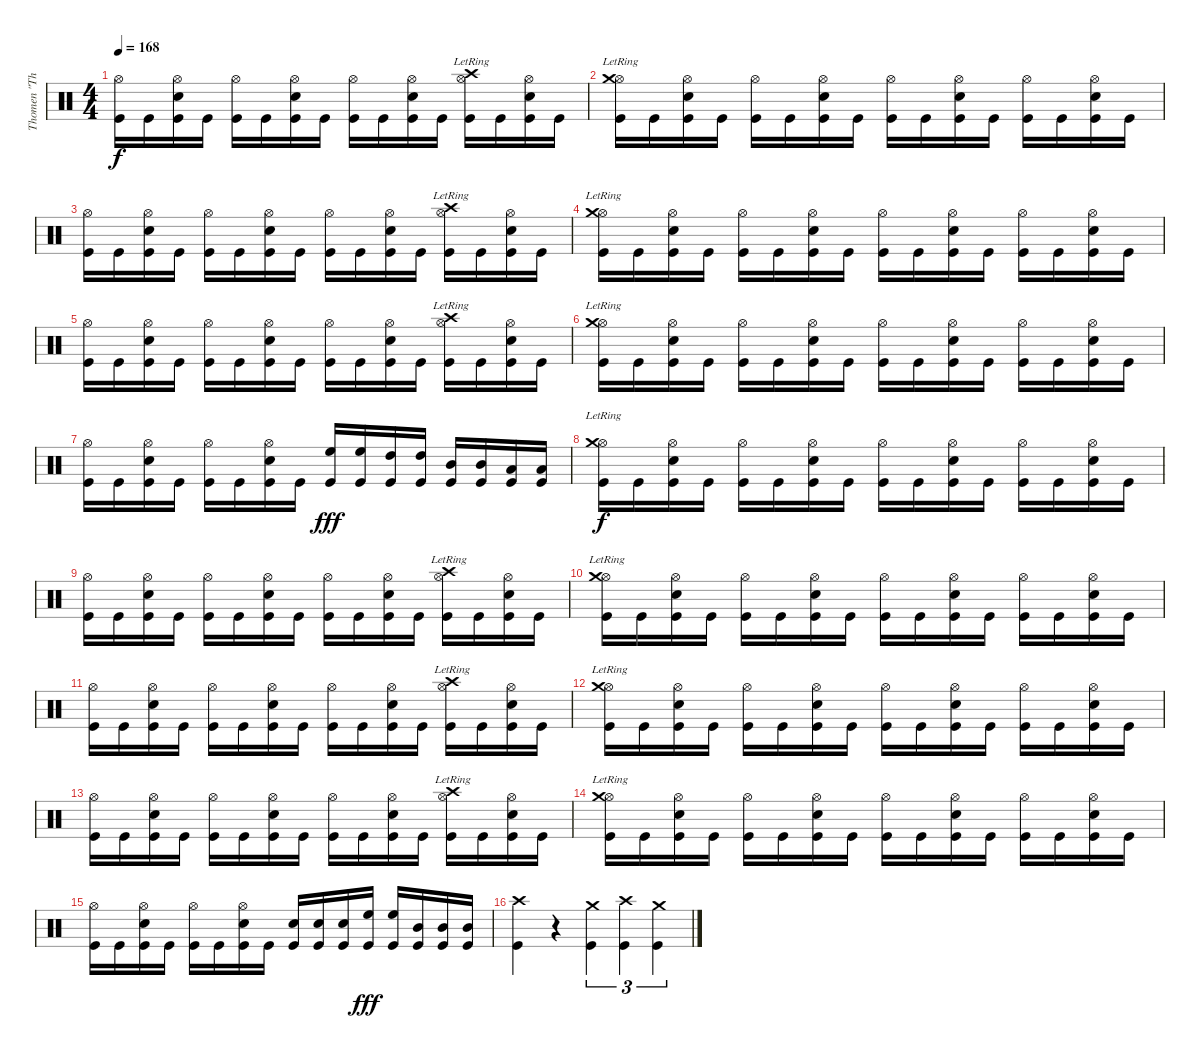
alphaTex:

\track ("Thomen \"The Omen\" Stauch" "Thomen \"Th") {instrument percussion}
\staff {score}
\articulation defaults
\ts (4 4)
\tempo 168
\clef neutral
\ks c
("Hi-Hat (open)" "Kick (hit)").16{dy f} "Kick (hit)".16 ("Hi-Hat (open)" "Snare (hit) 2" "Kick (hit)").16 "Kick (hit)".16 ("Hi-Hat (open)" "Kick (hit)").16 "Kick (hit)".16 ("Hi-Hat (open)" "Snare (hit) 2" "Kick (hit)").16 "Kick (hit)".16 ("Hi-Hat (open)" "Kick (hit)").16 "Kick (hit)".16 ("Hi-Hat (open)" "Snare (hit) 2" "Kick (hit)").16 "Kick (hit)".16 ("Hi-Hat (open)" "Crash high (hit)"{lr} "Kick (hit)").16 "Kick (hit)".16 ("Hi-Hat (open)" "Snare (hit) 2" "Kick (hit)").16 "Kick (hit)".16 |
("Hi-Hat (open)" "Crash medium (hit)"{lr} "Kick (hit)").16 "Kick (hit)".16 ("Hi-Hat (open)" "Snare (hit) 2" "Kick (hit)").16 "Kick (hit)".16 ("Hi-Hat (open)" "Kick (hit)").16 "Kick (hit)".16 ("Hi-Hat (open)" "Snare (hit) 2" "Kick (hit)").16 "Kick (hit)".16 ("Hi-Hat (open)" "Kick (hit)").16 "Kick (hit)".16 ("Hi-Hat (open)" "Snare (hit) 2" "Kick (hit)").16 "Kick (hit)".16 ("Hi-Hat (open)" "Kick (hit)").16 "Kick (hit)".16 ("Hi-Hat (open)" "Snare (hit) 2" "Kick (hit)").16 "Kick (hit)".16 |
("Hi-Hat (open)" "Kick (hit)").16 "Kick (hit)".16 ("Hi-Hat (open)" "Snare (hit) 2" "Kick (hit)").16 "Kick (hit)".16 ("Hi-Hat (open)" "Kick (hit)").16 "Kick (hit)".16 ("Hi-Hat (open)" "Snare (hit) 2" "Kick (hit)").16 "Kick (hit)".16 ("Hi-Hat (open)" "Kick (hit)").16 "Kick (hit)".16 ("Hi-Hat (open)" "Snare (hit) 2" "Kick (hit)").16 "Kick (hit)".16 ("Hi-Hat (open)" "Crash high (hit)"{lr} "Kick (hit)").16 "Kick (hit)".16 ("Hi-Hat (open)" "Snare (hit) 2" "Kick (hit)").16 "Kick (hit)".16 |
("Hi-Hat (open)" "Crash medium (hit)"{lr} "Kick (hit)").16 "Kick (hit)".16 ("Hi-Hat (open)" "Snare (hit) 2" "Kick (hit)").16 "Kick (hit)".16 ("Hi-Hat (open)" "Kick (hit)").16 "Kick (hit)".16 ("Hi-Hat (open)" "Snare (hit) 2" "Kick (hit)").16 "Kick (hit)".16 ("Hi-Hat (open)" "Kick (hit)").16 "Kick (hit)".16 ("Hi-Hat (open)" "Snare (hit) 2" "Kick (hit)").16 "Kick (hit)".16 ("Hi-Hat (open)" "Kick (hit)").16 "Kick (hit)".16 ("Hi-Hat (open)" "Snare (hit) 2" "Kick (hit)").16 "Kick (hit)".16 |
("Hi-Hat (open)" "Kick (hit)").16 "Kick (hit)".16 ("Hi-Hat (open)" "Snare (hit) 2" "Kick (hit)").16 "Kick (hit)".16 ("Hi-Hat (open)" "Kick (hit)").16 "Kick (hit)".16 ("Hi-Hat (open)" "Snare (hit) 2" "Kick (hit)").16 "Kick (hit)".16 ("Hi-Hat (open)" "Kick (hit)").16 "Kick (hit)".16 ("Hi-Hat (open)" "Snare (hit) 2" "Kick (hit)").16 "Kick (hit)".16 ("Hi-Hat (open)" "Crash high (hit)"{lr} "Kick (hit)").16 "Kick (hit)".16 ("Hi-Hat (open)" "Snare (hit) 2" "Kick (hit)").16 "Kick (hit)".16 |
("Hi-Hat (open)" "Crash medium (hit)"{lr} "Kick (hit)").16 "Kick (hit)".16 ("Hi-Hat (open)" "Snare (hit) 2" "Kick (hit)").16 "Kick (hit)".16 ("Hi-Hat (open)" "Kick (hit)").16 "Kick (hit)".16 ("Hi-Hat (open)" "Snare (hit) 2" "Kick (hit)").16 "Kick (hit)".16 ("Hi-Hat (open)" "Kick (hit)").16 "Kick (hit)".16 ("Hi-Hat (open)" "Snare (hit) 2" "Kick (hit)").16 "Kick (hit)".16 ("Hi-Hat (open)" "Kick (hit)").16 "Kick (hit)".16 ("Hi-Hat (open)" "Snare (hit) 2" "Kick (hit)").16 "Kick (hit)".16 |
("Hi-Hat (open)" "Kick (hit)").16 "Kick (hit)".16 ("Hi-Hat (open)" "Snare (hit) 2" "Kick (hit)").16 "Kick (hit)".16 ("Hi-Hat (open)" "Kick (hit)").16 "Kick (hit)".16 ("Hi-Hat (open)" "Snare (hit) 2" "Kick (hit)").16 "Kick (hit)".16 ("High Floor Tom (hit)" "Kick (hit)").16{dy fff} ("High Floor Tom (hit)" "Kick (hit)").16 ("High Tom (hit)" "Kick (hit)").16 ("High Tom (hit)" "Kick (hit)").16 ("Mid Tom (hit)" "Kick (hit)").16 ("Mid Tom (hit)" "Kick (hit)").16 ("Low Tom (hit)" "Kick (hit)").16 ("Low Tom (hit)" "Kick (hit)").16 |
("Hi-Hat (open)" "Crash medium (hit)"{lr} "Kick (hit)").16{dy f} "Kick (hit)".16 ("Hi-Hat (open)" "Snare (hit) 2" "Kick (hit)").16 "Kick (hit)".16 ("Hi-Hat (open)" "Kick (hit)").16 "Kick (hit)".16 ("Hi-Hat (open)" "Snare (hit) 2" "Kick (hit)").16 "Kick (hit)".16 ("Hi-Hat (open)" "Kick (hit)").16 "Kick (hit)".16 ("Hi-Hat (open)" "Snare (hit) 2" "Kick (hit)").16 "Kick (hit)".16 ("Hi-Hat (open)" "Kick (hit)").16 "Kick (hit)".16 ("Hi-Hat (open)" "Snare (hit) 2" "Kick (hit)").16 "Kick (hit)".16 |
("Hi-Hat (open)" "Kick (hit)").16 "Kick (hit)".16 ("Hi-Hat (open)" "Snare (hit) 2" "Kick (hit)").16 "Kick (hit)".16 ("Hi-Hat (open)" "Kick (hit)").16 "Kick (hit)".16 ("Hi-Hat (open)" "Snare (hit) 2" "Kick (hit)").16 "Kick (hit)".16 ("Hi-Hat (open)" "Kick (hit)").16 "Kick (hit)".16 ("Hi-Hat (open)" "Snare (hit) 2" "Kick (hit)").16 "Kick (hit)".16 ("Hi-Hat (open)" "Crash high (hit)"{lr} "Kick (hit)").16 "Kick (hit)".16 ("Hi-Hat (open)" "Snare (hit) 2" "Kick (hit)").16 "Kick (hit)".16 |
("Hi-Hat (open)" "Crash medium (hit)"{lr} "Kick (hit)").16 "Kick (hit)".16 ("Hi-Hat (open)" "Snare (hit) 2" "Kick (hit)").16 "Kick (hit)".16 ("Hi-Hat (open)" "Kick (hit)").16 "Kick (hit)".16 ("Hi-Hat (open)" "Snare (hit) 2" "Kick (hit)").16 "Kick (hit)".16 ("Hi-Hat (open)" "Kick (hit)").16 "Kick (hit)".16 ("Hi-Hat (open)" "Snare (hit) 2" "Kick (hit)").16 "Kick (hit)".16 ("Hi-Hat (open)" "Kick (hit)").16 "Kick (hit)".16 ("Hi-Hat (open)" "Snare (hit) 2" "Kick (hit)").16 "Kick (hit)".16 |
("Hi-Hat (open)" "Kick (hit)").16 "Kick (hit)".16 ("Hi-Hat (open)" "Snare (hit) 2" "Kick (hit)").16 "Kick (hit)".16 ("Hi-Hat (open)" "Kick (hit)").16 "Kick (hit)".16 ("Hi-Hat (open)" "Snare (hit) 2" "Kick (hit)").16 "Kick (hit)".16 ("Hi-Hat (open)" "Kick (hit)").16 "Kick (hit)".16 ("Hi-Hat (open)" "Snare (hit) 2" "Kick (hit)").16 "Kick (hit)".16 ("Hi-Hat (open)" "Crash high (hit)"{lr} "Kick (hit)").16 "Kick (hit)".16 ("Hi-Hat (open)" "Snare (hit) 2" "Kick (hit)").16 "Kick (hit)".16 |
("Hi-Hat (open)" "Crash medium (hit)"{lr} "Kick (hit)").16 "Kick (hit)".16 ("Hi-Hat (open)" "Snare (hit) 2" "Kick (hit)").16 "Kick (hit)".16 ("Hi-Hat (open)" "Kick (hit)").16 "Kick (hit)".16 ("Hi-Hat (open)" "Snare (hit) 2" "Kick (hit)").16 "Kick (hit)".16 ("Hi-Hat (open)" "Kick (hit)").16 "Kick (hit)".16 ("Hi-Hat (open)" "Snare (hit) 2" "Kick (hit)").16 "Kick (hit)".16 ("Hi-Hat (open)" "Kick (hit)").16 "Kick (hit)".16 ("Hi-Hat (open)" "Snare (hit) 2" "Kick (hit)").16 "Kick (hit)".16 |
("Hi-Hat (open)" "Kick (hit)").16 "Kick (hit)".16 ("Hi-Hat (open)" "Snare (hit) 2" "Kick (hit)").16 "Kick (hit)".16 ("Hi-Hat (open)" "Kick (hit)").16 "Kick (hit)".16 ("Hi-Hat (open)" "Snare (hit) 2" "Kick (hit)").16 "Kick (hit)".16 ("Hi-Hat (open)" "Kick (hit)").16 "Kick (hit)".16 ("Hi-Hat (open)" "Snare (hit) 2" "Kick (hit)").16 "Kick (hit)".16 ("Hi-Hat (open)" "Crash high (hit)"{lr} "Kick (hit)").16 "Kick (hit)".16 ("Hi-Hat (open)" "Snare (hit) 2" "Kick (hit)").16 "Kick (hit)".16 |
("Hi-Hat (open)" "Crash medium (hit)"{lr} "Kick (hit)").16 "Kick (hit)".16 ("Hi-Hat (open)" "Snare (hit) 2" "Kick (hit)").16 "Kick (hit)".16 ("Hi-Hat (open)" "Kick (hit)").16 "Kick (hit)".16 ("Hi-Hat (open)" "Snare (hit) 2" "Kick (hit)").16 "Kick (hit)".16 ("Hi-Hat (open)" "Kick (hit)").16 "Kick (hit)".16 ("Hi-Hat (open)" "Snare (hit) 2" "Kick (hit)").16 "Kick (hit)".16 ("Hi-Hat (open)" "Kick (hit)").16 "Kick (hit)".16 ("Hi-Hat (open)" "Snare (hit) 2" "Kick (hit)").16 "Kick (hit)".16 |
("Hi-Hat (open)" "Kick (hit)").16 "Kick (hit)".16 ("Hi-Hat (open)" "Snare (hit) 2" "Kick (hit)").16 "Kick (hit)".16 ("Hi-Hat (open)" "Kick (hit)").16 "Kick (hit)".16 ("Hi-Hat (open)" "Snare (hit) 2" "Kick (hit)").16 "Kick (hit)".16 ("Snare (hit) 2" "Kick (hit)").16 ("Snare (hit) 2" "Kick (hit)").16 ("Snare (hit) 2" "Kick (hit)").16 ("High Floor Tom (hit)" "Kick (hit)").16{dy fff} ("High Floor Tom (hit)" "Kick (hit)").16 ("Mid Tom (hit)" "Kick (hit)").16 ("Mid Tom (hit)" "Kick (hit)").16 ("Mid Tom (hit)" "Kick (hit)").16 |
("Crash high (hit)" "Kick (hit)").4 r.4 ("Crash medium (hit)" "Kick (hit)").4{tu (3 2)} ("Crash high (hit)" "Kick (hit)").4{tu (3 2)} ("Crash medium (hit)" "Kick (hit)").4{tu (3 2)}
